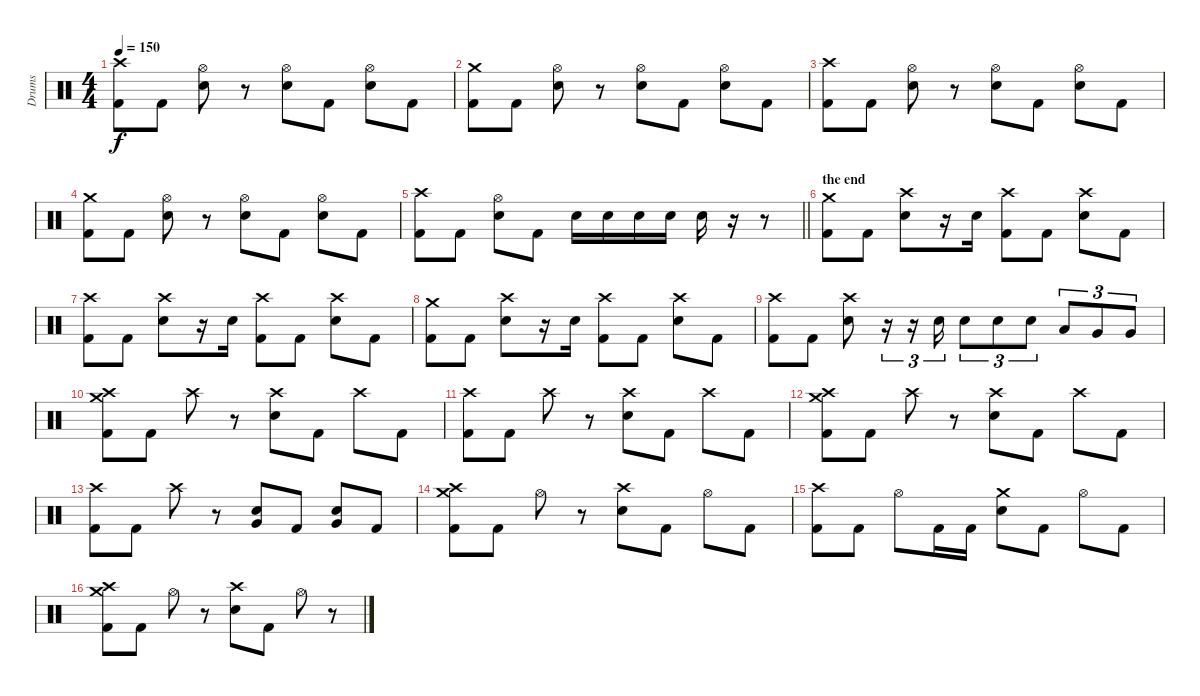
\track ("Drums" "Drums") {instrument percussion}
\staff {score}
\articulation defaults
\ts (4 4)
\tempo 150
\clef neutral
\ks c
("Kick (hit) 2" "Crash high (hit)").8{dy f} "Kick (hit) 2".8 ("Electric Snare (hit)" "Hi-Hat (open)").8 r.8 ("Electric Snare (hit)" "Hi-Hat (open)").8 "Kick (hit) 2".8 ("Electric Snare (hit)" "Hi-Hat (open)").8 "Kick (hit) 2".8 |
("Kick (hit) 2" "Crash medium (hit)").8 "Kick (hit) 2".8 ("Electric Snare (hit)" "Hi-Hat (open)").8 r.8 ("Electric Snare (hit)" "Hi-Hat (open)").8 "Kick (hit) 2".8 ("Electric Snare (hit)" "Hi-Hat (open)").8 "Kick (hit) 2".8 |
("Kick (hit) 2" "Crash high (hit)").8 "Kick (hit) 2".8 ("Electric Snare (hit)" "Hi-Hat (open)").8 r.8 ("Electric Snare (hit)" "Hi-Hat (open)").8 "Kick (hit) 2".8 ("Electric Snare (hit)" "Hi-Hat (open)").8 "Kick (hit) 2".8 |
("Kick (hit) 2" "Crash medium (hit)").8 "Kick (hit) 2".8 ("Electric Snare (hit)" "Hi-Hat (open)").8 r.8 ("Electric Snare (hit)" "Hi-Hat (open)").8 "Kick (hit) 2".8 ("Electric Snare (hit)" "Hi-Hat (open)").8 "Kick (hit) 2".8 |
\barLineRight lightlight
("Kick (hit) 2" "Crash high (hit)").8 "Kick (hit) 2".8 ("Electric Snare (hit)" "Hi-Hat (open)").8 "Kick (hit) 2".8 "Electric Snare (hit)".16 "Electric Snare (hit)".16 "Electric Snare (hit)".16 "Electric Snare (hit)".16 "Electric Snare (hit)".16 r.16 r.8 |
\section ("" "the end")
("Kick (hit) 2" "Crash medium (hit)").8 "Kick (hit) 2".8 ("Electric Snare (hit)" "Crash high (hit)").8 r.16 "Electric Snare (hit)".16 ("Kick (hit) 2" "Crash high (hit)").8 "Kick (hit) 2".8 ("Electric Snare (hit)" "Crash high (hit)").8 "Kick (hit) 2".8 |
("Kick (hit) 2" "Crash high (hit)").8 "Kick (hit) 2".8 ("Electric Snare (hit)" "Crash high (hit)").8 r.16 "Electric Snare (hit)".16 ("Kick (hit) 2" "Crash high (hit)").8 "Kick (hit) 2".8 ("Electric Snare (hit)" "Crash high (hit)").8 "Kick (hit) 2".8 |
("Kick (hit) 2" "Crash medium (hit)").8 "Kick (hit) 2".8 ("Electric Snare (hit)" "Crash high (hit)").8 r.16 "Electric Snare (hit)".16 ("Kick (hit) 2" "Crash high (hit)").8 "Kick (hit) 2".8 ("Electric Snare (hit)" "Crash high (hit)").8 "Kick (hit) 2".8 |
("Kick (hit) 2" "Crash high (hit)").8 "Kick (hit) 2".8 ("Electric Snare (hit)" "Crash high (hit)").8 r.16{tu (3 2)} r.16{tu (3 2)} "Electric Snare (hit)".16{tu (3 2)} "Electric Snare (hit)".8{tu (3 2)} "Electric Snare (hit)".8{tu (3 2)} "Electric Snare (hit)".8{tu (3 2)} "Low Tom (hit)".8{tu (3 2)} "Very Low Tom (hit)".8{tu (3 2)} "Very Low Tom (hit)".8{tu (3 2)} |
("Kick (hit) 2" "Crash high (hit)" "Crash medium (hit)").8 "Kick (hit) 2".8 "Crash high (hit)".8 r.8 ("Electric Snare (hit)" "Crash high (hit)").8 "Kick (hit) 2".8 "Crash high (hit)".8 "Kick (hit) 2".8 |
("Kick (hit) 2" "Crash high (hit)").8 "Kick (hit) 2".8 "Crash high (hit)".8 r.8 ("Electric Snare (hit)" "Crash high (hit)").8 "Kick (hit) 2".8 "Crash high (hit)".8 "Kick (hit) 2".8 |
("Kick (hit) 2" "Crash high (hit)" "Crash medium (hit)").8 "Kick (hit) 2".8 "Crash high (hit)".8 r.8 ("Electric Snare (hit)" "Crash high (hit)").8 "Kick (hit) 2".8 "Crash high (hit)".8 "Kick (hit) 2".8 |
("Kick (hit) 2" "Crash high (hit)").8 "Kick (hit) 2".8 "Crash high (hit)".8 r.8 ("Electric Snare (hit)" "Very Low Tom (hit)").8 "Kick (hit) 2".8 ("Electric Snare (hit)" "Very Low Tom (hit)").8 "Kick (hit) 2".8 |
("Kick (hit) 2" "Crash high (hit)" "Crash medium (hit)").8 "Kick (hit) 2".8 "Hi-Hat (open)".8 r.8 ("Electric Snare (hit)" "Crash high (hit)").8 "Kick (hit) 2".8 "Hi-Hat (open)".8 "Kick (hit) 2".8 |
("Kick (hit) 2" "Crash high (hit)").8 "Kick (hit) 2".8 "Hi-Hat (open)".8 "Kick (hit) 2".16 "Kick (hit) 2".16 ("Electric Snare (hit)" "Crash medium (hit)").8 "Kick (hit) 2".8 "Hi-Hat (open)".8 "Kick (hit) 2".8 |
("Kick (hit) 2" "Crash high (hit)" "Crash medium (hit)").8 "Kick (hit) 2".8 "Hi-Hat (open)".8 r.8 ("Electric Snare (hit)" "Crash high (hit)").8 "Kick (hit) 2".8 "Hi-Hat (open)".8 r.8
